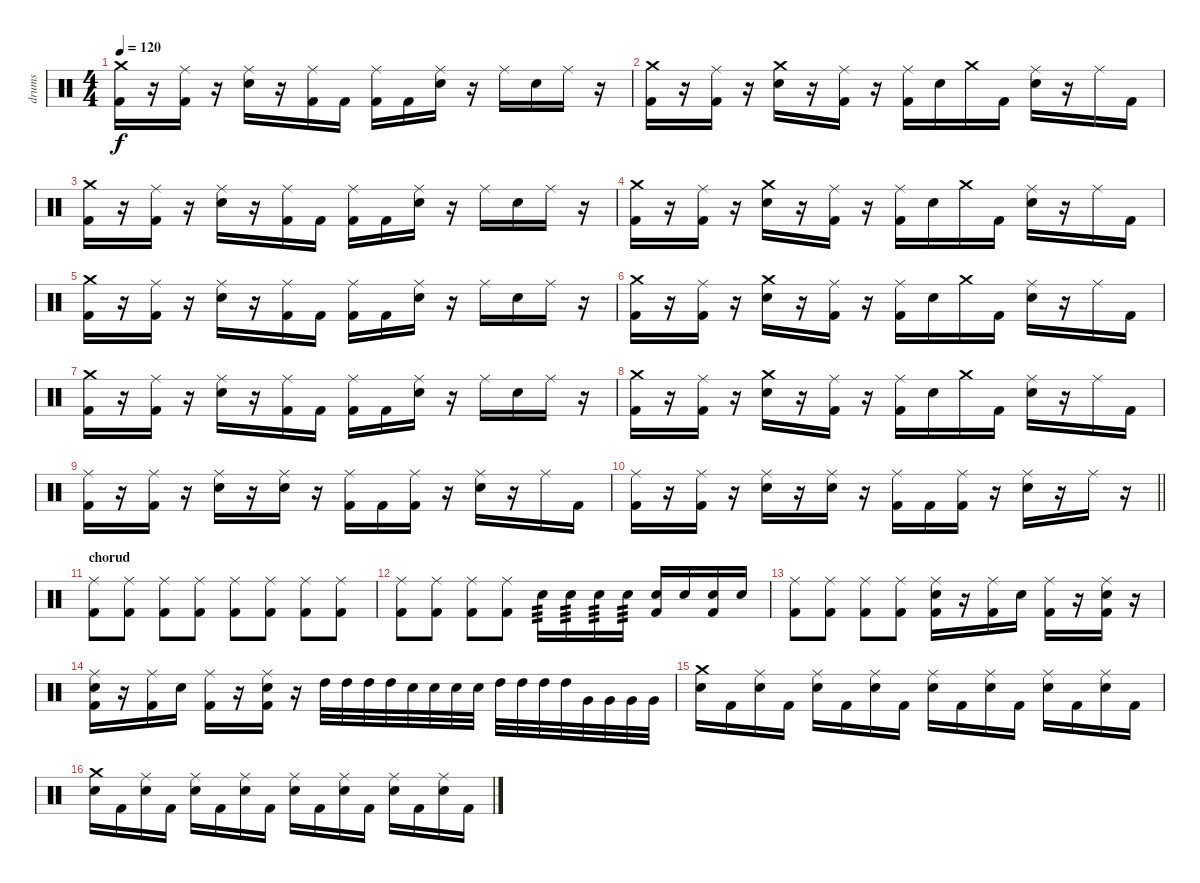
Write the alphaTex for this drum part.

\track ("drums" "drums") {instrument percussion}
\staff {score}
\articulation defaults
\ts (4 4)
\tempo 120
\clef neutral
\ks c
("Crash medium (hit)" "Kick (hit) 2").16{dy f} r.16 ("Ride (middle)" "Kick (hit) 2").16 r.16 ("Ride (middle)" "Snare (hit) 2").16 r.16 ("Ride (middle)" "Kick (hit) 2").16 "Kick (hit) 2".16 ("Ride (middle)" "Kick (hit) 2").16 "Kick (hit) 2".16 ("Ride (middle)" "Snare (hit) 2").16 r.16 "Ride (middle)".16 "Snare (hit) 2".16 "Ride (middle)".16 r.16 |
("Crash medium (hit)" "Kick (hit) 2").16 r.16 ("Ride (middle)" "Kick (hit) 2").16 r.16 ("Crash medium (hit)" "Snare (hit) 2").16 r.16 ("Ride (middle)" "Kick (hit) 2").16 r.16 ("Ride (middle)" "Kick (hit) 2").16 "Snare (hit) 2".16 "Crash medium (hit)".16 "Kick (hit) 2".16 ("Ride (middle)" "Snare (hit) 2").16 r.16 "Ride (middle)".16 "Kick (hit) 2".16 |
("Crash medium (hit)" "Kick (hit) 2").16 r.16 ("Ride (middle)" "Kick (hit) 2").16 r.16 ("Ride (middle)" "Snare (hit) 2").16 r.16 ("Ride (middle)" "Kick (hit) 2").16 "Kick (hit) 2".16 ("Ride (middle)" "Kick (hit) 2").16 "Kick (hit) 2".16 ("Ride (middle)" "Snare (hit) 2").16 r.16 "Ride (middle)".16 "Snare (hit) 2".16 "Ride (middle)".16 r.16 |
("Crash medium (hit)" "Kick (hit) 2").16 r.16 ("Ride (middle)" "Kick (hit) 2").16 r.16 ("Crash medium (hit)" "Snare (hit) 2").16 r.16 ("Ride (middle)" "Kick (hit) 2").16 r.16 ("Ride (middle)" "Kick (hit) 2").16 "Snare (hit) 2".16 "Crash medium (hit)".16 "Kick (hit) 2".16 ("Ride (middle)" "Snare (hit) 2").16 r.16 "Ride (middle)".16 "Kick (hit) 2".16 |
("Crash medium (hit)" "Kick (hit) 2").16 r.16 ("Ride (middle)" "Kick (hit) 2").16 r.16 ("Ride (middle)" "Snare (hit) 2").16 r.16 ("Ride (middle)" "Kick (hit) 2").16 "Kick (hit) 2".16 ("Ride (middle)" "Kick (hit) 2").16 "Kick (hit) 2".16 ("Ride (middle)" "Snare (hit) 2").16 r.16 "Ride (middle)".16 "Snare (hit) 2".16 "Ride (middle)".16 r.16 |
("Crash medium (hit)" "Kick (hit) 2").16 r.16 ("Ride (middle)" "Kick (hit) 2").16 r.16 ("Crash medium (hit)" "Snare (hit) 2").16 r.16 ("Ride (middle)" "Kick (hit) 2").16 r.16 ("Ride (middle)" "Kick (hit) 2").16 "Snare (hit) 2".16 "Crash medium (hit)".16 "Kick (hit) 2".16 ("Ride (middle)" "Snare (hit) 2").16 r.16 "Ride (middle)".16 "Kick (hit) 2".16 |
("Crash medium (hit)" "Kick (hit) 2").16 r.16 ("Ride (middle)" "Kick (hit) 2").16 r.16 ("Ride (middle)" "Snare (hit) 2").16 r.16 ("Ride (middle)" "Kick (hit) 2").16 "Kick (hit) 2".16 ("Ride (middle)" "Kick (hit) 2").16 "Kick (hit) 2".16 ("Ride (middle)" "Snare (hit) 2").16 r.16 "Ride (middle)".16 "Snare (hit) 2".16 "Ride (middle)".16 r.16 |
("Crash medium (hit)" "Kick (hit) 2").16 r.16 ("Ride (middle)" "Kick (hit) 2").16 r.16 ("Crash medium (hit)" "Snare (hit) 2").16 r.16 ("Ride (middle)" "Kick (hit) 2").16 r.16 ("Ride (middle)" "Kick (hit) 2").16 "Snare (hit) 2".16 "Crash medium (hit)".16 "Kick (hit) 2".16 ("Ride (middle)" "Snare (hit) 2").16 r.16 "Ride (middle)".16 "Kick (hit) 2".16 |
("Ride (middle)" "Kick (hit) 2").16 r.16 ("Ride (middle)" "Kick (hit) 2").16 r.16 ("Ride (middle)" "Snare (hit) 2").16 r.16 ("Ride (middle)" "Snare (hit) 2").16 r.16 ("Ride (middle)" "Kick (hit) 2").16 "Kick (hit) 2".16 ("Ride (middle)" "Kick (hit) 2").16 r.16 ("Ride (middle)" "Snare (hit) 2").16 r.16 "Ride (middle)".16 "Kick (hit) 2".16 |
\barLineRight lightlight
("Ride (middle)" "Kick (hit) 2").16 r.16 ("Ride (middle)" "Kick (hit) 2").16 r.16 ("Ride (middle)" "Snare (hit) 2").16 r.16 ("Ride (middle)" "Snare (hit) 2").16 r.16 ("Ride (middle)" "Kick (hit) 2").16 "Kick (hit) 2".16 ("Ride (middle)" "Kick (hit) 2").16 r.16 ("Ride (middle)" "Snare (hit) 2").16 r.16 "Ride (middle)".16 r.16 |
\section ("" "chorud")
("Ride (middle)" "Kick (hit) 2").8 ("Ride (middle)" "Kick (hit) 2").8 ("Ride (middle)" "Kick (hit) 2").8 ("Ride (middle)" "Kick (hit) 2").8 ("Ride (middle)" "Kick (hit) 2").8 ("Ride (middle)" "Kick (hit) 2").8 ("Ride (middle)" "Kick (hit) 2").8 ("Ride (middle)" "Kick (hit) 2").8 |
("Ride (middle)" "Kick (hit) 2").8 ("Ride (middle)" "Kick (hit) 2").8 ("Ride (middle)" "Kick (hit) 2").8 ("Ride (middle)" "Kick (hit) 2").8 "Snare (hit) 2".16{tp 3 volume 16} "Snare (hit) 2".16{tp 3} "Snare (hit) 2".16{tp 3} "Snare (hit) 2".16{tp 3} ("Snare (hit) 2" "Kick (hit) 2").16 "Snare (hit) 2".16 ("Snare (hit) 2" "Kick (hit) 2").16 "Snare (hit) 2".16 |
("Ride (middle)" "Kick (hit) 2").8 ("Ride (middle)" "Kick (hit) 2").8 ("Ride (middle)" "Kick (hit) 2").8 ("Ride (middle)" "Kick (hit) 2").8 ("Ride (middle)" "Snare (hit) 2" "Kick (hit) 2").16 r.16 ("Ride (middle)" "Kick (hit) 2").16 "Snare (hit) 2".16 ("Ride (middle)" "Kick (hit) 2").16 r.16 ("Ride (middle)" "Snare (hit) 2" "Kick (hit) 2").16 r.16 |
("Ride (middle)" "Snare (hit) 2" "Kick (hit) 2").16 r.16 ("Ride (middle)" "Kick (hit) 2").16 "Snare (hit) 2".16 ("Ride (middle)" "Kick (hit) 2").16 r.16 ("Ride (middle)" "Snare (hit) 2" "Kick (hit) 2").16 r.16 "High Tom (hit)".32 "High Tom (hit)".32 "High Tom (hit)".32 "High Tom (hit)".32 "Snare (hit) 2".32 "Snare (hit) 2".32 "Snare (hit) 2".32 "Snare (hit) 2".32 "High Tom (hit)".32 "High Tom (hit)".32 "High Tom (hit)".32 "High Tom (hit)".32 "Very Low Tom (hit)".32 "Very Low Tom (hit)".32 "Very Low Tom (hit)".32 "Very Low Tom (hit)".32 |
("Crash medium (hit)" "Snare (hit) 2").16 "Kick (hit) 2".16 ("Ride (middle)" "Snare (hit) 2").16 "Kick (hit) 2".16 ("Ride (middle)" "Snare (hit) 2").16 "Kick (hit) 2".16 ("Ride (middle)" "Snare (hit) 2").16 "Kick (hit) 2".16 ("Ride (middle)" "Snare (hit) 2").16 "Kick (hit) 2".16 ("Ride (middle)" "Snare (hit) 2").16 "Kick (hit) 2".16 ("Ride (middle)" "Snare (hit) 2").16 "Kick (hit) 2".16 ("Ride (middle)" "Snare (hit) 2").16 "Kick (hit) 2".16 |
("Crash medium (hit)" "Snare (hit) 2").16 "Kick (hit) 2".16 ("Ride (middle)" "Snare (hit) 2").16 "Kick (hit) 2".16 ("Ride (middle)" "Snare (hit) 2").16 "Kick (hit) 2".16 ("Ride (middle)" "Snare (hit) 2").16 "Kick (hit) 2".16 ("Ride (middle)" "Snare (hit) 2").16 "Kick (hit) 2".16 ("Ride (middle)" "Snare (hit) 2").16 "Kick (hit) 2".16 ("Ride (middle)" "Snare (hit) 2").16 "Kick (hit) 2".16 ("Ride (middle)" "Snare (hit) 2").16 "Kick (hit) 2".16
